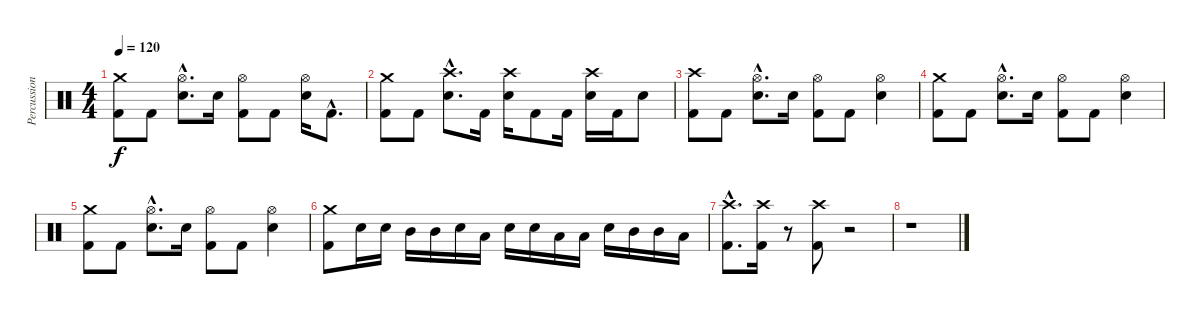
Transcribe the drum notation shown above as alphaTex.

\track ("Percussion" "Percussion") {instrument percussion}
\staff {score}
\articulation defaults
\ts (4 4)
\tempo 120
\clef neutral
\ks c
("Crash medium (hit)" "Kick (hit) 2").8{dy f} "Kick (hit) 2".8 ("Hi-Hat (open)"{hac} "Snare (hit) 2"{hac}).8{d} "Snare (hit) 2".16 ("Hi-Hat (open)" "Kick (hit) 2").8 "Kick (hit) 2".8 ("Hi-Hat (open)" "Snare (hit) 2").16 "Kick (hit) 2"{hac}.8{d} |
("Crash medium (hit)" "Kick (hit) 2").8 "Kick (hit) 2".8 ("Crash high (hit)"{hac} "Snare (hit) 2"{hac}).8{d} "Kick (hit) 2".16 ("Crash high (hit)" "Snare (hit) 2").16 "Kick (hit) 2".8 "Kick (hit) 2".16 ("Crash high (hit)" "Snare (hit) 2").16 "Kick (hit) 2".16 "Snare (hit) 2".8 |
("Crash high (hit)" "Kick (hit) 2").8 "Kick (hit) 2".8 ("Hi-Hat (open)"{hac} "Snare (hit) 2"{hac}).8{d} "Snare (hit) 2".16 ("Hi-Hat (open)" "Kick (hit) 2").8 "Kick (hit) 2".8 ("Hi-Hat (open)" "Snare (hit) 2").4 |
("Crash medium (hit)" "Kick (hit) 2").8 "Kick (hit) 2".8 ("Hi-Hat (open)"{hac} "Snare (hit) 2"{hac}).8{d} "Snare (hit) 2".16 ("Hi-Hat (open)" "Kick (hit) 2").8 "Kick (hit) 2".8 ("Hi-Hat (open)" "Snare (hit) 2").4 |
("Crash medium (hit)" "Kick (hit) 2").8 "Kick (hit) 2".8 ("Hi-Hat (open)"{hac} "Snare (hit) 2"{hac}).8{d} "Snare (hit) 2".16 ("Hi-Hat (open)" "Kick (hit) 2").8 "Kick (hit) 2".8 ("Hi-Hat (open)" "Snare (hit) 2").4 |
("Crash medium (hit)" "Kick (hit) 2").8 "Snare (hit) 2".16 "Snare (hit) 2".16 "Mid Tom (hit)".16 "Mid Tom (hit)".16 "Snare (hit) 2".16 "Low Tom (hit)".16 "Snare (hit) 2".16 "Snare (hit) 2".16 "Low Tom (hit)".16 "Low Tom (hit)".16 "Snare (hit) 2".16 "Mid Tom (hit)".16 "Mid Tom (hit)".16 "Low Tom (hit)".16 |
("Crash high (hit)"{hac} "Kick (hit) 2"{hac}).8{d} ("Crash high (hit)" "Kick (hit) 2").16 r.8 ("Crash high (hit)" "Kick (hit) 2").8 r.2 |
r.1
